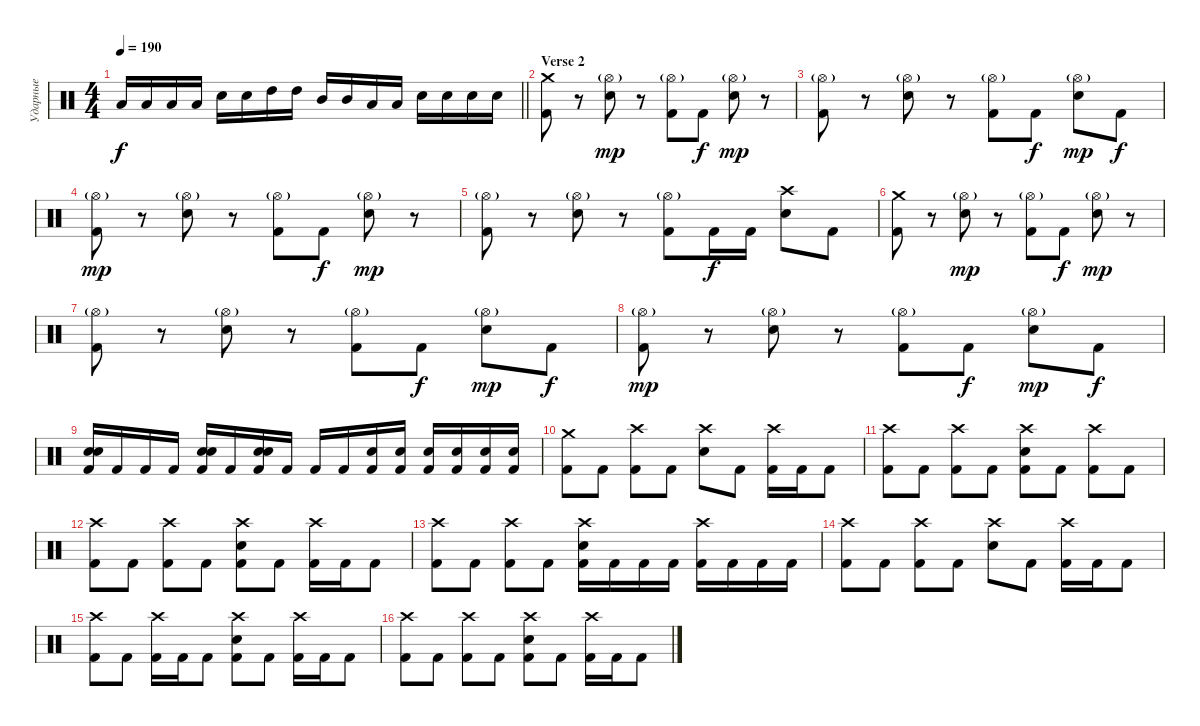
\track ("Ударные" "Ударные") {instrument percussion}
\staff {score}
\articulation defaults
\ts (4 4)
\tempo 190
\clef neutral
\barLineRight lightlight
\ks c "Low Tom (hit)".16{dy f} "Low Tom (hit)".16 "Low Tom (hit)".16 "Low Tom (hit)".16 "Electric Snare (hit)".16 "Electric Snare (hit)".16 "High Tom (hit)".16 "High Tom (hit)".16 "Mid Tom (hit)".16 "Mid Tom (hit)".16 "Low Tom (hit)".16 "Low Tom (hit)".16 "Electric Snare (hit)".16 "Electric Snare (hit)".16 "Electric Snare (hit)".16 "Electric Snare (hit)".16
|
\section ("" "Verse 2")
("Crash medium (hit)" "Kick (hit) 2").8 r.8 ("Hi-Hat (open)"{g} "Electric Snare (hit)").8{dy mp} r.8 ("Hi-Hat (open)"{g} "Kick (hit) 2").8 "Kick (hit) 2".8{dy f} ("Hi-Hat (open)"{g} "Electric Snare (hit)").8{dy mp} r.8 |
("Hi-Hat (open)"{g} "Kick (hit) 2").8 r.8 ("Hi-Hat (open)"{g} "Electric Snare (hit)").8 r.8 ("Hi-Hat (open)"{g} "Kick (hit) 2").8 "Kick (hit) 2".8{dy f} ("Hi-Hat (open)"{g} "Electric Snare (hit)").8{dy mp} "Kick (hit) 2".8{dy f} |
("Hi-Hat (open)"{g} "Kick (hit) 2").8{dy mp} r.8 ("Hi-Hat (open)"{g} "Electric Snare (hit)").8 r.8 ("Hi-Hat (open)"{g} "Kick (hit) 2").8 "Kick (hit) 2".8{dy f} ("Hi-Hat (open)"{g} "Electric Snare (hit)").8{dy mp} r.8 |
("Hi-Hat (open)"{g} "Kick (hit) 2").8 r.8 ("Hi-Hat (open)"{g} "Electric Snare (hit)").8 r.8 ("Hi-Hat (open)"{g} "Kick (hit) 2").8 "Kick (hit) 2".16{dy f} "Kick (hit) 2".16 ("Crash high (hit)" "Electric Snare (hit)").8 "Kick (hit) 2".8 |
("Crash medium (hit)" "Kick (hit) 2").8 r.8 ("Hi-Hat (open)"{g} "Electric Snare (hit)").8{dy mp} r.8 ("Hi-Hat (open)"{g} "Kick (hit) 2").8 "Kick (hit) 2".8{dy f} ("Hi-Hat (open)"{g} "Electric Snare (hit)").8{dy mp} r.8 |
("Hi-Hat (open)"{g} "Kick (hit) 2").8 r.8 ("Hi-Hat (open)"{g} "Electric Snare (hit)").8 r.8 ("Hi-Hat (open)"{g} "Kick (hit) 2").8 "Kick (hit) 2".8{dy f} ("Hi-Hat (open)"{g} "Electric Snare (hit)").8{dy mp} "Kick (hit) 2".8{dy f} |
("Hi-Hat (open)"{g} "Kick (hit) 2").8{dy mp} r.8 ("Hi-Hat (open)"{g} "Electric Snare (hit)").8 r.8 ("Hi-Hat (open)"{g} "Kick (hit) 2").8 "Kick (hit) 2".8{dy f} ("Hi-Hat (open)"{g} "Electric Snare (hit)").8{dy mp} "Kick (hit) 2".8{dy f} |
("Electric Snare (hit)" "Electric Snare (hit)" "Kick (hit) 2").16 "Kick (hit) 2".16 "Kick (hit) 2".16 "Kick (hit) 2".16 ("Electric Snare (hit)" "Electric Snare (hit)" "Kick (hit) 2").16 "Kick (hit) 2".16 ("Electric Snare (hit)" "Electric Snare (hit)" "Kick (hit) 2").16 "Kick (hit) 2".16 "Kick (hit) 2".16 "Kick (hit) 2".16 ("Electric Snare (hit)" "Kick (hit) 2").16 ("Electric Snare (hit)" "Kick (hit) 2").16 ("Electric Snare (hit)" "Kick (hit) 2").16 ("Electric Snare (hit)" "Kick (hit) 2").16 ("Electric Snare (hit)" "Kick (hit) 2").16 ("Electric Snare (hit)" "Kick (hit) 2").16 |
("Crash medium (hit)" "Kick (hit) 2").8 "Kick (hit) 2".8 ("Crash high (hit)" "Kick (hit) 2").8 "Kick (hit) 2".8 ("Crash high (hit)" "Electric Snare (hit)").8 "Kick (hit) 2".8 ("Crash high (hit)" "Kick (hit) 2").16 "Kick (hit) 2".16 "Kick (hit) 2".8 |
("Crash high (hit)" "Kick (hit) 2").8 "Kick (hit) 2".8 ("Crash high (hit)" "Kick (hit) 2").8 "Kick (hit) 2".8 ("Crash high (hit)" "Electric Snare (hit)" "Kick (hit) 2").8 "Kick (hit) 2".8 ("Crash high (hit)" "Kick (hit) 2").8 "Kick (hit) 2".8 |
("Crash high (hit)" "Kick (hit) 2").8 "Kick (hit) 2".8 ("Crash high (hit)" "Kick (hit) 2").8 "Kick (hit) 2".8 ("Crash high (hit)" "Electric Snare (hit)" "Kick (hit) 2").8 "Kick (hit) 2".8 ("Crash high (hit)" "Kick (hit) 2").16 "Kick (hit) 2".16 "Kick (hit) 2".8 |
("Crash high (hit)" "Kick (hit) 2").8 "Kick (hit) 2".8 ("Crash high (hit)" "Kick (hit) 2").8 "Kick (hit) 2".8 ("Crash high (hit)" "Electric Snare (hit)" "Kick (hit) 2").16 "Kick (hit) 2".16 "Kick (hit) 2".16 "Kick (hit) 2".16 ("Crash high (hit)" "Kick (hit) 2").16 "Kick (hit) 2".16 "Kick (hit) 2".16 "Kick (hit) 2".16 |
("Crash high (hit)" "Kick (hit) 2").8 "Kick (hit) 2".8 ("Crash high (hit)" "Kick (hit) 2").8 "Kick (hit) 2".8 ("Crash high (hit)" "Electric Snare (hit)").8 "Kick (hit) 2".8 ("Crash high (hit)" "Kick (hit) 2").16 "Kick (hit) 2".16 "Kick (hit) 2".8 |
("Crash high (hit)" "Kick (hit) 2").8 "Kick (hit) 2".8 ("Crash high (hit)" "Kick (hit) 2").16 "Kick (hit) 2".16 "Kick (hit) 2".8 ("Crash high (hit)" "Electric Snare (hit)" "Kick (hit) 2").8 "Kick (hit) 2".8 ("Crash high (hit)" "Kick (hit) 2").16 "Kick (hit) 2".16 "Kick (hit) 2".8 |
("Crash high (hit)" "Kick (hit) 2").8 "Kick (hit) 2".8 ("Crash high (hit)" "Kick (hit) 2").8 "Kick (hit) 2".8 ("Crash high (hit)" "Electric Snare (hit)" "Kick (hit) 2").8 "Kick (hit) 2".8 ("Crash high (hit)" "Kick (hit) 2").16 "Kick (hit) 2".16 "Kick (hit) 2".8
